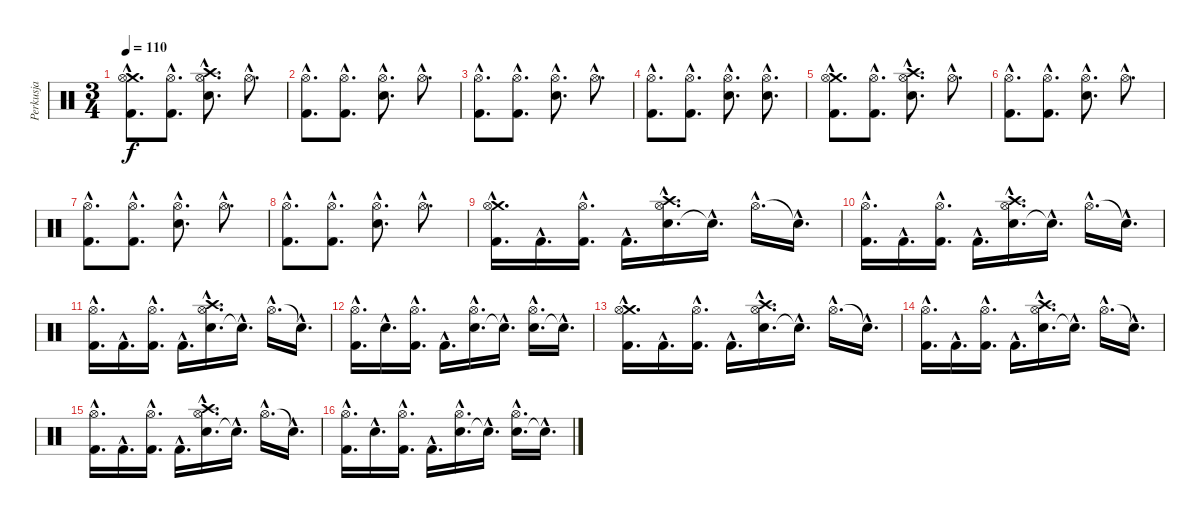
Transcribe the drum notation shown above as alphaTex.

\track ("Perkusja" "Perkusja") {instrument percussion}
\staff {score}
\articulation defaults
\ts (3 4)
\tempo 110
\clef neutral
\ks c
("Kick (hit) 2"{hac} "Crash medium (hit)"{hac} "Hi-Hat (open)"{hac}).8{d dy f} ("Kick (hit) 2"{hac} "Hi-Hat (open)"{hac}).8{d} ("Electric Snare (hit)"{hac} "Crash high (hit)"{hac} "Hi-Hat (open)"{hac}).8{d} "Hi-Hat (open)"{hac}.8{d} |
("Kick (hit) 2"{hac} "Hi-Hat (open)"{hac}).8{d} ("Kick (hit) 2"{hac} "Hi-Hat (open)"{hac}).8{d} ("Electric Snare (hit)"{hac} "Hi-Hat (open)"{hac}).8{d} "Hi-Hat (open)"{hac}.8{d} |
("Kick (hit) 2"{hac} "Hi-Hat (open)"{hac}).8{d} ("Kick (hit) 2"{hac} "Hi-Hat (open)"{hac}).8{d} ("Electric Snare (hit)"{hac} "Hi-Hat (open)"{hac}).8{d} "Hi-Hat (open)"{hac}.8{d} |
("Kick (hit) 2"{hac} "Hi-Hat (open)"{hac}).8{d} ("Kick (hit) 2"{hac} "Hi-Hat (open)"{hac}).8{d} ("Electric Snare (hit)"{hac} "Hi-Hat (open)"{hac}).8{d} ("Electric Snare (hit)"{hac} "Hi-Hat (open)"{hac}).8{d} |
("Kick (hit) 2"{hac} "Crash medium (hit)"{hac} "Hi-Hat (open)"{hac}).8{d} ("Kick (hit) 2"{hac} "Hi-Hat (open)"{hac}).8{d} ("Electric Snare (hit)"{hac} "Crash high (hit)"{hac} "Hi-Hat (open)"{hac}).8{d} "Hi-Hat (open)"{hac}.8{d} |
("Kick (hit) 2"{hac} "Hi-Hat (open)"{hac}).8{d} ("Kick (hit) 2"{hac} "Hi-Hat (open)"{hac}).8{d} ("Electric Snare (hit)"{hac} "Hi-Hat (open)"{hac}).8{d} "Hi-Hat (open)"{hac}.8{d} |
("Kick (hit) 2"{hac} "Hi-Hat (open)"{hac}).8{d} ("Kick (hit) 2"{hac} "Hi-Hat (open)"{hac}).8{d} ("Electric Snare (hit)"{hac} "Hi-Hat (open)"{hac}).8{d} "Hi-Hat (open)"{hac}.8{d} |
("Kick (hit) 2"{hac} "Hi-Hat (open)"{hac}).8{d} ("Kick (hit) 2"{hac} "Hi-Hat (open)"{hac}).8{d} ("Electric Snare (hit)"{hac} "Hi-Hat (open)"{hac}).8{d} "Hi-Hat (open)"{hac}.8{d} |
("Kick (hit) 2"{hac} "Crash medium (hit)"{hac} "Hi-Hat (open)"{hac}).16{d} "Kick (hit) 2"{hac}.16{d} ("Kick (hit) 2"{hac} "Hi-Hat (open)"{hac}).16{d} "Kick (hit) 2"{hac}.16{d} ("Electric Snare (hit)"{hac} "Crash high (hit)"{hac} "Hi-Hat (open)"{hac}).16{d} "Snare (hit)"{hac t}.16{d} "Hi-Hat (open)"{hac}.16{d} "Snare (hit)"{hac t}.16{d} |
("Kick (hit) 2"{hac} "Hi-Hat (open)"{hac}).16{d} "Kick (hit) 2"{hac}.16{d} ("Kick (hit) 2"{hac} "Hi-Hat (open)"{hac}).16{d} "Kick (hit) 2"{hac}.16{d} ("Electric Snare (hit)"{hac} "Crash high (hit)"{hac} "Hi-Hat (open)"{hac}).16{d} "Snare (hit)"{hac t}.16{d} "Hi-Hat (open)"{hac}.16{d} "Snare (hit)"{hac t}.16{d} |
("Kick (hit) 2"{hac} "Hi-Hat (open)"{hac}).16{d} "Kick (hit) 2"{hac}.16{d} ("Kick (hit) 2"{hac} "Hi-Hat (open)"{hac}).16{d} "Kick (hit) 2"{hac}.16{d} ("Electric Snare (hit)"{hac} "Crash high (hit)"{hac} "Hi-Hat (open)"{hac}).16{d} "Snare (hit)"{hac t}.16{d} "Hi-Hat (open)"{hac}.16{d} "Snare (hit)"{hac t}.16{d} |
("Kick (hit) 2"{hac} "Hi-Hat (open)"{hac}).16{d} "Electric Snare (hit)"{hac}.16{d} ("Kick (hit) 2"{hac} "Hi-Hat (open)"{hac}).16{d} "Kick (hit) 2"{hac}.16{d} ("Electric Snare (hit)"{hac} "Hi-Hat (open)"{hac}).16{d} "Snare (hit)"{hac t}.16{d} ("Electric Snare (hit)"{hac} "Hi-Hat (open)"{hac}).16{d} "Snare (hit)"{hac t}.16{d} |
("Kick (hit) 2"{hac} "Crash medium (hit)"{hac} "Hi-Hat (open)"{hac}).16{d} "Kick (hit) 2"{hac}.16{d} ("Kick (hit) 2"{hac} "Hi-Hat (open)"{hac}).16{d} "Kick (hit) 2"{hac}.16{d} ("Electric Snare (hit)"{hac} "Crash high (hit)"{hac} "Hi-Hat (open)"{hac}).16{d} "Snare (hit)"{hac t}.16{d} "Hi-Hat (open)"{hac}.16{d} "Snare (hit)"{hac t}.16{d} |
("Kick (hit) 2"{hac} "Hi-Hat (open)"{hac}).16{d} "Kick (hit) 2"{hac}.16{d} ("Kick (hit) 2"{hac} "Hi-Hat (open)"{hac}).16{d} "Kick (hit) 2"{hac}.16{d} ("Electric Snare (hit)"{hac} "Crash high (hit)"{hac} "Hi-Hat (open)"{hac}).16{d} "Snare (hit)"{hac t}.16{d} "Hi-Hat (open)"{hac}.16{d} "Snare (hit)"{hac t}.16{d} |
("Kick (hit) 2"{hac} "Hi-Hat (open)"{hac}).16{d} "Kick (hit) 2"{hac}.16{d} ("Kick (hit) 2"{hac} "Hi-Hat (open)"{hac}).16{d} "Kick (hit) 2"{hac}.16{d} ("Electric Snare (hit)"{hac} "Crash high (hit)"{hac} "Hi-Hat (open)"{hac}).16{d} "Snare (hit)"{hac t}.16{d} "Hi-Hat (open)"{hac}.16{d} "Snare (hit)"{hac t}.16{d} |
("Kick (hit) 2"{hac} "Hi-Hat (open)"{hac}).16{d} "Electric Snare (hit)"{hac}.16{d} ("Kick (hit) 2"{hac} "Hi-Hat (open)"{hac}).16{d} "Kick (hit) 2"{hac}.16{d} ("Electric Snare (hit)"{hac} "Hi-Hat (open)"{hac}).16{d} "Snare (hit)"{hac t}.16{d} ("Electric Snare (hit)"{hac} "Hi-Hat (open)"{hac}).16{d} "Snare (hit)"{hac t}.16{d}
